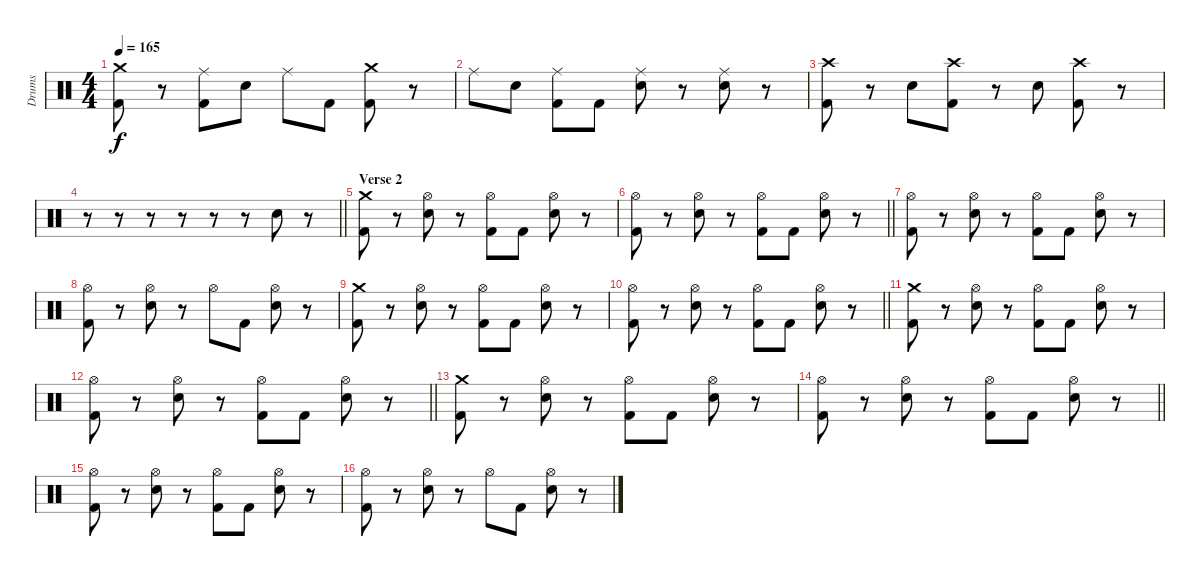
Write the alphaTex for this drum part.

\track ("Drums" "Drums") {instrument percussion}
\staff {score}
\articulation defaults
\ts (4 4)
\tempo 165
\clef neutral
\ks c
("Crash medium (hit)" "Kick (hit) 2").8{dy f} r.8 ("Ride (middle)" "Kick (hit) 2").8 "Electric Snare (hit)".8 "Ride (middle)".8 "Kick (hit) 2".8 ("Crash medium (hit)" "Kick (hit) 2").8 r.8 |
"Ride (middle)".8 "Electric Snare (hit)".8 ("Ride (middle)" "Kick (hit) 2").8 "Kick (hit) 2".8 ("Ride (middle)" "Electric Snare (hit)").8 r.8 ("Ride (middle)" "Electric Snare (hit)").8 r.8 |
("Crash high (hit)" "Kick (hit) 2").8 r.8 "Electric Snare (hit)".8 ("Kick (hit) 2" "Crash high (hit)").8 r.8 "Electric Snare (hit)".8 ("Crash high (hit)" "Kick (hit) 2").8 r.8 |
\barLineRight lightlight
r.8 r.8 r.8 r.8 r.8 r.8 "Electric Snare (hit)".8 r.8 |
\section ("" "Verse 2")
("Crash medium (hit)" "Kick (hit) 2").8 r.8 ("Hi-Hat (open)" "Electric Snare (hit)").8 r.8 ("Hi-Hat (open)" "Kick (hit) 2").8 "Kick (hit) 2".8 ("Hi-Hat (open)" "Electric Snare (hit)").8 r.8 |
\barLineRight lightlight
("Hi-Hat (open)" "Kick (hit) 2").8 r.8 ("Hi-Hat (open)" "Electric Snare (hit)").8 r.8 ("Hi-Hat (open)" "Kick (hit) 2").8 "Kick (hit) 2".8 ("Hi-Hat (open)" "Electric Snare (hit)").8 r.8 |
("Hi-Hat (open)" "Kick (hit) 2").8 r.8 ("Hi-Hat (open)" "Electric Snare (hit)").8 r.8 ("Hi-Hat (open)" "Kick (hit) 2").8 "Kick (hit) 2".8 ("Hi-Hat (open)" "Electric Snare (hit)").8 r.8 |
("Hi-Hat (open)" "Kick (hit) 2").8 r.8 ("Hi-Hat (open)" "Electric Snare (hit)").8 r.8 "Hi-Hat (open)".8 "Kick (hit) 2".8 ("Hi-Hat (open)" "Electric Snare (hit)").8 r.8 |
("Crash medium (hit)" "Kick (hit) 2").8 r.8 ("Hi-Hat (open)" "Electric Snare (hit)").8 r.8 ("Hi-Hat (open)" "Kick (hit) 2").8 "Kick (hit) 2".8 ("Hi-Hat (open)" "Electric Snare (hit)").8 r.8 |
\barLineRight lightlight
("Hi-Hat (open)" "Kick (hit) 2").8 r.8 ("Hi-Hat (open)" "Electric Snare (hit)").8 r.8 ("Hi-Hat (open)" "Kick (hit) 2").8 "Kick (hit) 2".8 ("Hi-Hat (open)" "Electric Snare (hit)").8 r.8 |
("Crash medium (hit)" "Kick (hit) 2").8 r.8 ("Hi-Hat (open)" "Electric Snare (hit)").8 r.8 ("Hi-Hat (open)" "Kick (hit) 2").8 "Kick (hit) 2".8 ("Hi-Hat (open)" "Electric Snare (hit)").8 r.8 |
\barLineRight lightlight
("Hi-Hat (open)" "Kick (hit) 2").8 r.8 ("Hi-Hat (open)" "Electric Snare (hit)").8 r.8 ("Hi-Hat (open)" "Kick (hit) 2").8 "Kick (hit) 2".8 ("Hi-Hat (open)" "Electric Snare (hit)").8 r.8 |
("Crash medium (hit)" "Kick (hit) 2").8 r.8 ("Hi-Hat (open)" "Electric Snare (hit)").8 r.8 ("Hi-Hat (open)" "Kick (hit) 2").8 "Kick (hit) 2".8 ("Hi-Hat (open)" "Electric Snare (hit)").8 r.8 |
\barLineRight lightlight
("Hi-Hat (open)" "Kick (hit) 2").8 r.8 ("Hi-Hat (open)" "Electric Snare (hit)").8 r.8 ("Hi-Hat (open)" "Kick (hit) 2").8 "Kick (hit) 2".8 ("Hi-Hat (open)" "Electric Snare (hit)").8 r.8 |
("Hi-Hat (open)" "Kick (hit) 2").8 r.8 ("Hi-Hat (open)" "Electric Snare (hit)").8 r.8 ("Hi-Hat (open)" "Kick (hit) 2").8 "Kick (hit) 2".8 ("Hi-Hat (open)" "Electric Snare (hit)").8 r.8 |
("Hi-Hat (open)" "Kick (hit) 2").8 r.8 ("Hi-Hat (open)" "Electric Snare (hit)").8 r.8 "Hi-Hat (open)".8 "Kick (hit) 2".8 ("Hi-Hat (open)" "Electric Snare (hit)").8 r.8
